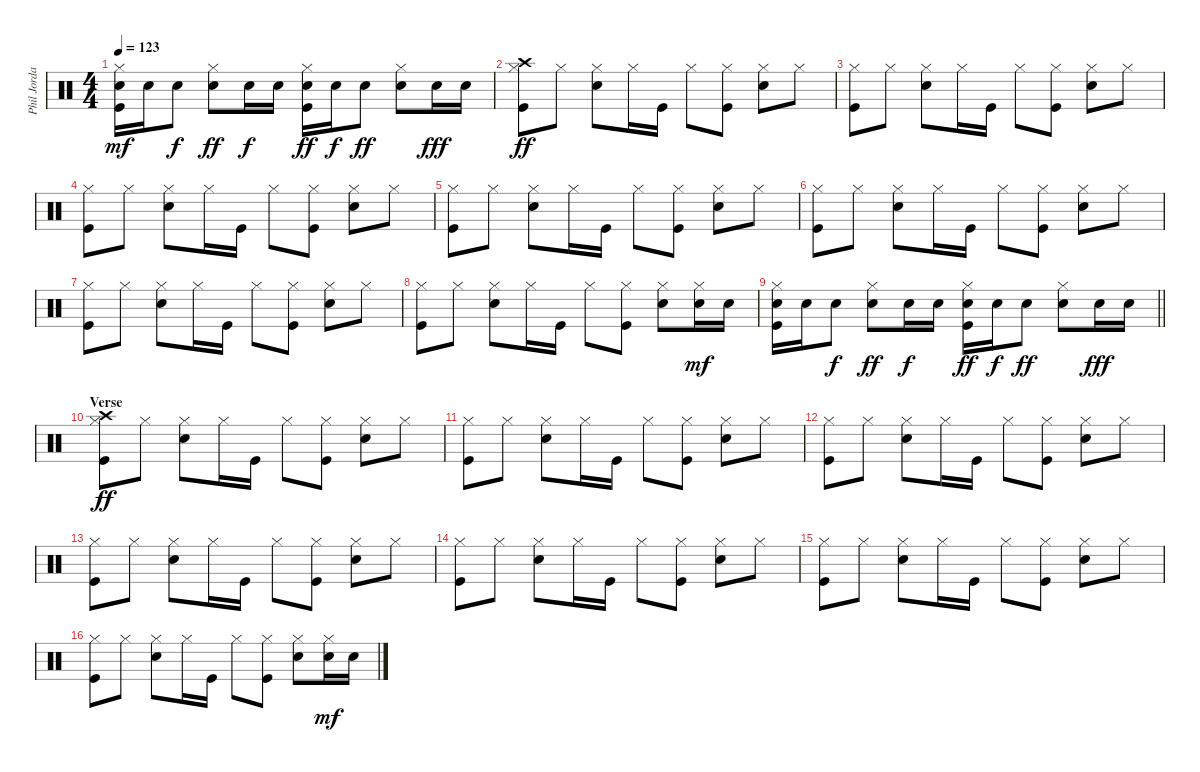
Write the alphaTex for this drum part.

\track ("Phil Jordan" "Phil Jorda") {instrument percussion}
\staff {score}
\articulation defaults
\ts (4 4)
\tempo 123
\clef neutral
\ks c
("Hi-Hat (closed)" "Snare (hit) 2" "Kick (hit)").16{dy mf} "Snare (hit) 2".16 "Snare (hit) 2".8{dy f} ("Hi-Hat (closed)" "Snare (hit) 2").8{dy ff} "Snare (hit) 2".16{dy f} "Snare (hit) 2".16 ("Hi-Hat (closed)" "Snare (hit) 2" "Kick (hit)").16{dy ff} "Snare (hit) 2".16{dy f} "Snare (hit) 2".8{dy ff} ("Hi-Hat (closed)" "Snare (hit) 2").8 "Snare (hit) 2".16{dy fff} "Snare (hit) 2".16 |
("Crash high (hit)" "Hi-Hat (closed)" "Kick (hit)").8{dy ff} "Hi-Hat (closed)".8 ("Hi-Hat (closed)" "Snare (hit) 2").8 "Hi-Hat (closed)".16 "Kick (hit)".16 "Hi-Hat (closed)".8 ("Hi-Hat (closed)" "Kick (hit)").8 ("Hi-Hat (closed)" "Snare (hit) 2").8 "Hi-Hat (closed)".8 |
("Hi-Hat (closed)" "Kick (hit)").8 "Hi-Hat (closed)".8 ("Hi-Hat (closed)" "Snare (hit) 2").8 "Hi-Hat (closed)".16 "Kick (hit)".16 "Hi-Hat (closed)".8 ("Hi-Hat (closed)" "Kick (hit)").8 ("Hi-Hat (closed)" "Snare (hit) 2").8 "Hi-Hat (closed)".8 |
("Hi-Hat (closed)" "Kick (hit)").8 "Hi-Hat (closed)".8 ("Hi-Hat (closed)" "Snare (hit) 2").8 "Hi-Hat (closed)".16 "Kick (hit)".16 "Hi-Hat (closed)".8 ("Hi-Hat (closed)" "Kick (hit)").8 ("Hi-Hat (closed)" "Snare (hit) 2").8 "Hi-Hat (closed)".8 |
("Hi-Hat (closed)" "Kick (hit)").8 "Hi-Hat (closed)".8 ("Hi-Hat (closed)" "Snare (hit) 2").8 "Hi-Hat (closed)".16 "Kick (hit)".16 "Hi-Hat (closed)".8 ("Hi-Hat (closed)" "Kick (hit)").8 ("Hi-Hat (closed)" "Snare (hit) 2").8 "Hi-Hat (closed)".8 |
("Hi-Hat (closed)" "Kick (hit)").8 "Hi-Hat (closed)".8 ("Hi-Hat (closed)" "Snare (hit) 2").8 "Hi-Hat (closed)".16 "Kick (hit)".16 "Hi-Hat (closed)".8 ("Hi-Hat (closed)" "Kick (hit)").8 ("Hi-Hat (closed)" "Snare (hit) 2").8 "Hi-Hat (closed)".8 |
("Hi-Hat (closed)" "Kick (hit)").8 "Hi-Hat (closed)".8 ("Hi-Hat (closed)" "Snare (hit) 2").8 "Hi-Hat (closed)".16 "Kick (hit)".16 "Hi-Hat (closed)".8 ("Hi-Hat (closed)" "Kick (hit)").8 ("Hi-Hat (closed)" "Snare (hit) 2").8 "Hi-Hat (closed)".8 |
("Hi-Hat (closed)" "Kick (hit)").8 "Hi-Hat (closed)".8 ("Hi-Hat (closed)" "Snare (hit) 2").8 "Hi-Hat (closed)".16 "Kick (hit)".16 "Hi-Hat (closed)".8 ("Hi-Hat (closed)" "Kick (hit)").8 ("Hi-Hat (closed)" "Snare (hit) 2").8 ("Hi-Hat (closed)" "Snare (hit) 2").16{dy mf} "Snare (hit) 2".16 |
\barLineRight lightlight
("Hi-Hat (closed)" "Snare (hit) 2" "Kick (hit)").16 "Snare (hit) 2".16 "Snare (hit) 2".8{dy f} ("Hi-Hat (closed)" "Snare (hit) 2").8{dy ff} "Snare (hit) 2".16{dy f} "Snare (hit) 2".16 ("Hi-Hat (closed)" "Snare (hit) 2" "Kick (hit)").16{dy ff} "Snare (hit) 2".16{dy f} "Snare (hit) 2".8{dy ff} ("Hi-Hat (closed)" "Snare (hit) 2").8 "Snare (hit) 2".16{dy fff} "Snare (hit) 2".16 |
\section ("" "Verse")
("Crash high (hit)" "Hi-Hat (closed)" "Kick (hit)").8{dy ff} "Hi-Hat (closed)".8 ("Hi-Hat (closed)" "Snare (hit) 2").8 "Hi-Hat (closed)".16 "Kick (hit)".16 "Hi-Hat (closed)".8 ("Hi-Hat (closed)" "Kick (hit)").8 ("Hi-Hat (closed)" "Snare (hit) 2").8 "Hi-Hat (closed)".8 |
("Hi-Hat (closed)" "Kick (hit)").8 "Hi-Hat (closed)".8 ("Hi-Hat (closed)" "Snare (hit) 2").8 "Hi-Hat (closed)".16 "Kick (hit)".16 "Hi-Hat (closed)".8 ("Hi-Hat (closed)" "Kick (hit)").8 ("Hi-Hat (closed)" "Snare (hit) 2").8 "Hi-Hat (closed)".8 |
("Hi-Hat (closed)" "Kick (hit)").8 "Hi-Hat (closed)".8 ("Hi-Hat (closed)" "Snare (hit) 2").8 "Hi-Hat (closed)".16 "Kick (hit)".16 "Hi-Hat (closed)".8 ("Hi-Hat (closed)" "Kick (hit)").8 ("Hi-Hat (closed)" "Snare (hit) 2").8 "Hi-Hat (closed)".8 |
("Hi-Hat (closed)" "Kick (hit)").8 "Hi-Hat (closed)".8 ("Hi-Hat (closed)" "Snare (hit) 2").8 "Hi-Hat (closed)".16 "Kick (hit)".16 "Hi-Hat (closed)".8 ("Hi-Hat (closed)" "Kick (hit)").8 ("Hi-Hat (closed)" "Snare (hit) 2").8 "Hi-Hat (closed)".8 |
("Hi-Hat (closed)" "Kick (hit)").8 "Hi-Hat (closed)".8 ("Hi-Hat (closed)" "Snare (hit) 2").8 "Hi-Hat (closed)".16 "Kick (hit)".16 "Hi-Hat (closed)".8 ("Hi-Hat (closed)" "Kick (hit)").8 ("Hi-Hat (closed)" "Snare (hit) 2").8 "Hi-Hat (closed)".8 |
("Hi-Hat (closed)" "Kick (hit)").8 "Hi-Hat (closed)".8 ("Hi-Hat (closed)" "Snare (hit) 2").8 "Hi-Hat (closed)".16 "Kick (hit)".16 "Hi-Hat (closed)".8 ("Hi-Hat (closed)" "Kick (hit)").8 ("Hi-Hat (closed)" "Snare (hit) 2").8 "Hi-Hat (closed)".8 |
("Hi-Hat (closed)" "Kick (hit)").8 "Hi-Hat (closed)".8 ("Hi-Hat (closed)" "Snare (hit) 2").8 "Hi-Hat (closed)".16 "Kick (hit)".16 "Hi-Hat (closed)".8 ("Hi-Hat (closed)" "Kick (hit)").8 ("Hi-Hat (closed)" "Snare (hit) 2").8 ("Hi-Hat (closed)" "Snare (hit) 2").16{dy mf} "Snare (hit) 2".16
